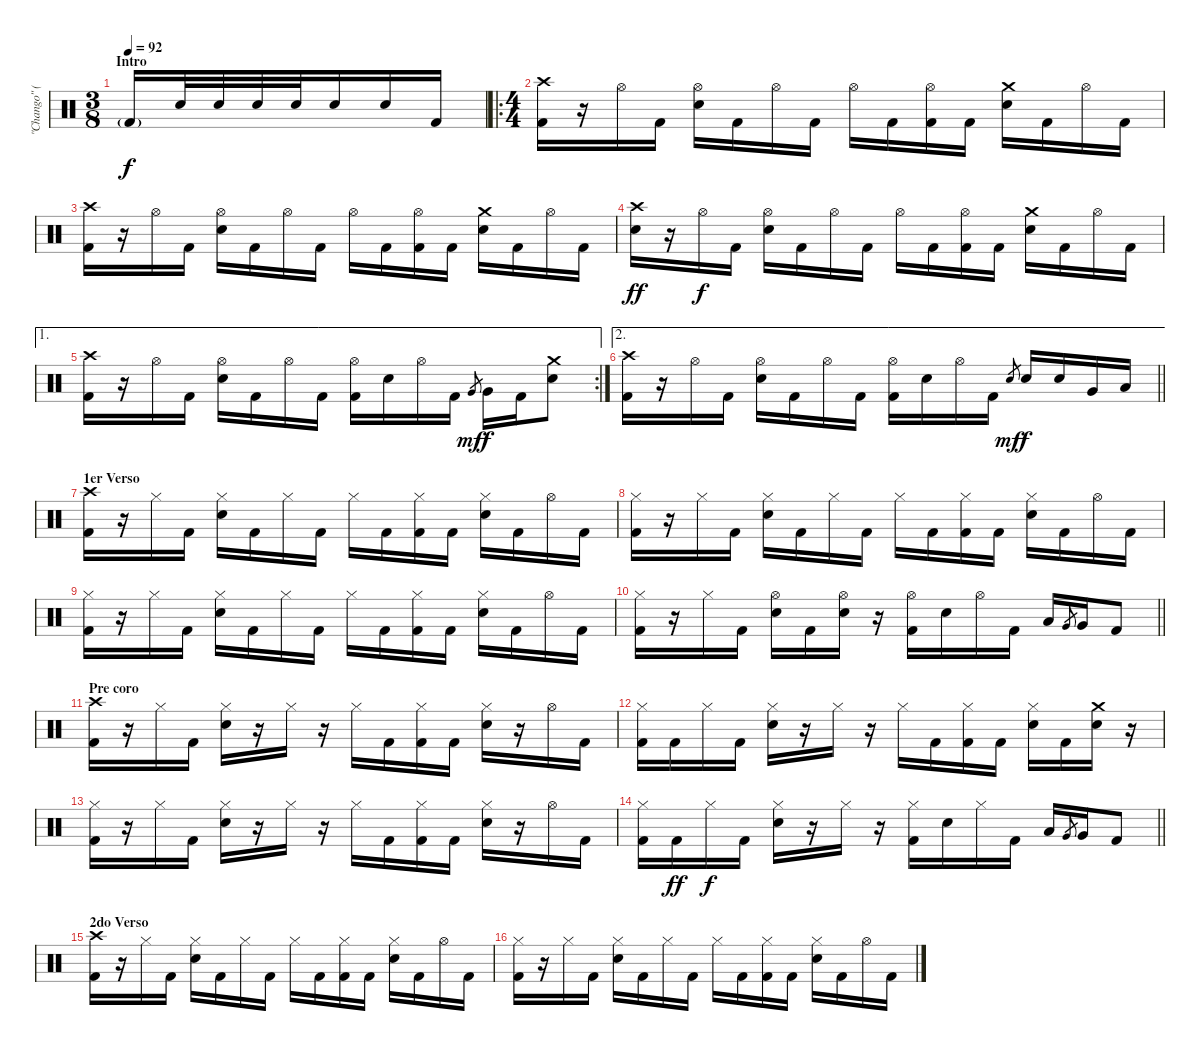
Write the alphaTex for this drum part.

\track ("\"Chango\" (Bateria)" "\"Chango\" (") {instrument percussion}
\staff {score}
\articulation defaults
\ts (3 8)
\section ("" "Intro")
\tempo 92
\clef neutral
\ks c "Kick (hit) 2"{g}.16{dy f} "Electric Snare (hit)".32 "Electric Snare (hit)".32 "Electric Snare (hit)".32 "Electric Snare (hit)".32 "Electric Snare (hit)".16 "Electric Snare (hit)".16 "Kick (hit) 2".16
|
\ro
\ts (4 4)
("Crash high (hit)" "Kick (hit) 2").16 r.16 "Hi-Hat (open)".16 "Kick (hit) 2".16 ("Hi-Hat (open)" "Electric Snare (hit)").16 "Kick (hit) 2".16 "Hi-Hat (open)".16 "Kick (hit) 2".16 "Hi-Hat (open)".16 "Kick (hit) 2".16 ("Hi-Hat (open)" "Kick (hit) 2").16 "Kick (hit) 2".16 ("Crash medium (hit)" "Electric Snare (hit)").16 "Kick (hit) 2".16 "Hi-Hat (open)".16 "Kick (hit) 2".16 |
("Crash high (hit)" "Kick (hit) 2").16 r.16 "Hi-Hat (open)".16 "Kick (hit) 2".16 ("Hi-Hat (open)" "Electric Snare (hit)").16 "Kick (hit) 2".16 "Hi-Hat (open)".16 "Kick (hit) 2".16 "Hi-Hat (open)".16 "Kick (hit) 2".16 ("Hi-Hat (open)" "Kick (hit) 2").16 "Kick (hit) 2".16 ("Crash medium (hit)" "Electric Snare (hit)").16 "Kick (hit) 2".16 "Hi-Hat (open)".16 "Kick (hit) 2".16 |
("Crash high (hit)" "Electric Snare (hit)").16{dy ff} r.16 "Hi-Hat (open)".16{dy f} "Kick (hit) 2".16 ("Hi-Hat (open)" "Electric Snare (hit)").16 "Kick (hit) 2".16 "Hi-Hat (open)".16 "Kick (hit) 2".16 "Hi-Hat (open)".16 "Kick (hit) 2".16 ("Hi-Hat (open)" "Kick (hit) 2").16 "Kick (hit) 2".16 ("Crash medium (hit)" "Electric Snare (hit)").16 "Kick (hit) 2".16 "Hi-Hat (open)".16 "Kick (hit) 2".16 |
\ae 1
\rc 2
("Crash high (hit)" "Kick (hit) 2").16 r.16 "Hi-Hat (open)".16 "Kick (hit) 2".16 ("Hi-Hat (open)" "Electric Snare (hit)").16 "Kick (hit) 2".16 "Hi-Hat (open)".16 "Kick (hit) 2".16 ("Hi-Hat (open)" "Kick (hit) 2").16 "Electric Snare (hit)".16 "Hi-Hat (open)".16 "Kick (hit) 2".16 "Very Low Tom (hit)".8{gr dy mf} "Very Low Tom (hit)".16{dy f} "Kick (hit) 2".16 ("Crash medium (hit)" "Electric Snare (hit)").8 |
\ae 2
\barLineRight lightlight
("Crash high (hit)" "Kick (hit) 2").16 r.16 "Hi-Hat (open)".16 "Kick (hit) 2".16 ("Hi-Hat (open)" "Electric Snare (hit)").16 "Kick (hit) 2".16 "Hi-Hat (open)".16 "Kick (hit) 2".16 ("Hi-Hat (open)" "Kick (hit) 2").16 "Electric Snare (hit)".16 "Hi-Hat (open)".16 "Kick (hit) 2".16 "Electric Snare (hit)".8{gr dy mf} "Electric Snare (hit)".16{dy f} "Electric Snare (hit)".16 "Very Low Tom (hit)".16 "Low Floor Tom (hit)".16 |
\section ("" "1er Verso")
("Crash high (hit)" "Kick (hit) 2").16 r.16 "Hi-Hat (closed)".16 "Kick (hit) 2".16 ("Hi-Hat (closed)" "Electric Snare (hit)").16 "Kick (hit) 2".16 "Hi-Hat (closed)".16 "Kick (hit) 2".16 "Hi-Hat (closed)".16 "Kick (hit) 2".16 ("Hi-Hat (closed)" "Kick (hit) 2").16 "Kick (hit) 2".16 ("Hi-Hat (closed)" "Electric Snare (hit)").16 "Kick (hit) 2".16 "Hi-Hat (open)".16 "Kick (hit) 2".16 |
("Hi-Hat (closed)" "Kick (hit) 2").16 r.16 "Hi-Hat (closed)".16 "Kick (hit) 2".16 ("Hi-Hat (closed)" "Electric Snare (hit)").16 "Kick (hit) 2".16 "Hi-Hat (closed)".16 "Kick (hit) 2".16 "Hi-Hat (closed)".16 "Kick (hit) 2".16 ("Hi-Hat (closed)" "Kick (hit) 2").16 "Kick (hit) 2".16 ("Hi-Hat (closed)" "Electric Snare (hit)").16 "Kick (hit) 2".16 "Hi-Hat (open)".16 "Kick (hit) 2".16 |
("Hi-Hat (closed)" "Kick (hit) 2").16 r.16 "Hi-Hat (closed)".16 "Kick (hit) 2".16 ("Hi-Hat (closed)" "Electric Snare (hit)").16 "Kick (hit) 2".16 "Hi-Hat (closed)".16 "Kick (hit) 2".16 "Hi-Hat (closed)".16 "Kick (hit) 2".16 ("Hi-Hat (closed)" "Kick (hit) 2").16 "Kick (hit) 2".16 ("Hi-Hat (closed)" "Electric Snare (hit)").16 "Kick (hit) 2".16 "Hi-Hat (open)".16 "Kick (hit) 2".16 |
\barLineRight lightlight
("Hi-Hat (closed)" "Kick (hit) 2").16 r.16 "Hi-Hat (closed)".16 "Kick (hit) 2".16 ("Hi-Hat (open)" "Electric Snare (hit)").16 "Kick (hit) 2".16 ("Hi-Hat (open)" "Electric Snare (hit)").16 r.16 ("Hi-Hat (open)" "Kick (hit) 2").16 "Electric Snare (hit)".16 "Hi-Hat (open)".16 "Kick (hit) 2".16 "Low Tom (hit)".16 "Very Low Tom (hit)".8{gr} "Very Low Tom (hit)".16 "Kick (hit) 2".8 |
\section ("" "Pre coro")
("Crash high (hit)" "Kick (hit) 2").16 r.16 "Hi-Hat (closed)".16 "Kick (hit) 2".16 ("Hi-Hat (closed)" "Electric Snare (hit)").16 r.16 "Hi-Hat (closed)".16 r.16 "Hi-Hat (closed)".16 "Kick (hit) 2".16 ("Hi-Hat (closed)" "Kick (hit) 2").16 "Kick (hit) 2".16 ("Hi-Hat (closed)" "Electric Snare (hit)").16 r.16 "Hi-Hat (open)".16 "Kick (hit) 2".16 |
("Hi-Hat (closed)" "Kick (hit) 2").16 "Kick (hit) 2".16 "Hi-Hat (closed)".16 "Kick (hit) 2".16 ("Hi-Hat (closed)" "Electric Snare (hit)").16 r.16 "Hi-Hat (closed)".16 r.16 "Hi-Hat (closed)".16 "Kick (hit) 2".16 ("Hi-Hat (closed)" "Kick (hit) 2").16 "Kick (hit) 2".16 ("Hi-Hat (closed)" "Electric Snare (hit)").16 "Kick (hit) 2".16 ("Crash medium (hit)" "Electric Snare (hit)").16 r.16 |
("Hi-Hat (closed)" "Kick (hit) 2").16 r.16 "Hi-Hat (closed)".16 "Kick (hit) 2".16 ("Hi-Hat (closed)" "Electric Snare (hit)").16 r.16 "Hi-Hat (closed)".16 r.16 "Hi-Hat (closed)".16 "Kick (hit) 2".16 ("Hi-Hat (closed)" "Kick (hit) 2").16 "Kick (hit) 2".16 ("Hi-Hat (closed)" "Electric Snare (hit)").16 r.16 "Hi-Hat (open)".16 "Kick (hit) 2".16 |
\barLineRight lightlight
("Hi-Hat (closed)" "Kick (hit) 2").16 "Kick (hit) 2".16{dy ff} "Hi-Hat (closed)".16{dy f} "Kick (hit) 2".16 ("Hi-Hat (closed)" "Electric Snare (hit)").16 r.16 "Hi-Hat (closed)".16 r.16 ("Hi-Hat (closed)" "Kick (hit) 2").16 "Electric Snare (hit)".16 "Hi-Hat (closed)".16 "Kick (hit) 2".16 "Low Tom (hit)".16 "Very Low Tom (hit)".8{gr} "Very Low Tom (hit)".16 "Kick (hit) 2".8 |
\section ("" "2do Verso")
("Crash high (hit)" "Kick (hit) 2").16 r.16 "Hi-Hat (closed)".16 "Kick (hit) 2".16 ("Hi-Hat (closed)" "Electric Snare (hit)").16 "Kick (hit) 2".16 "Hi-Hat (closed)".16 "Kick (hit) 2".16 "Hi-Hat (closed)".16 "Kick (hit) 2".16 ("Hi-Hat (closed)" "Kick (hit) 2").16 "Kick (hit) 2".16 ("Hi-Hat (closed)" "Electric Snare (hit)").16 "Kick (hit) 2".16 "Hi-Hat (open)".16 "Kick (hit) 2".16 |
("Hi-Hat (closed)" "Kick (hit) 2").16 r.16 "Hi-Hat (closed)".16 "Kick (hit) 2".16 ("Hi-Hat (closed)" "Electric Snare (hit)").16 "Kick (hit) 2".16 "Hi-Hat (closed)".16 "Kick (hit) 2".16 "Hi-Hat (closed)".16 "Kick (hit) 2".16 ("Hi-Hat (closed)" "Kick (hit) 2").16 "Kick (hit) 2".16 ("Hi-Hat (closed)" "Electric Snare (hit)").16 "Kick (hit) 2".16 "Hi-Hat (open)".16 "Kick (hit) 2".16
